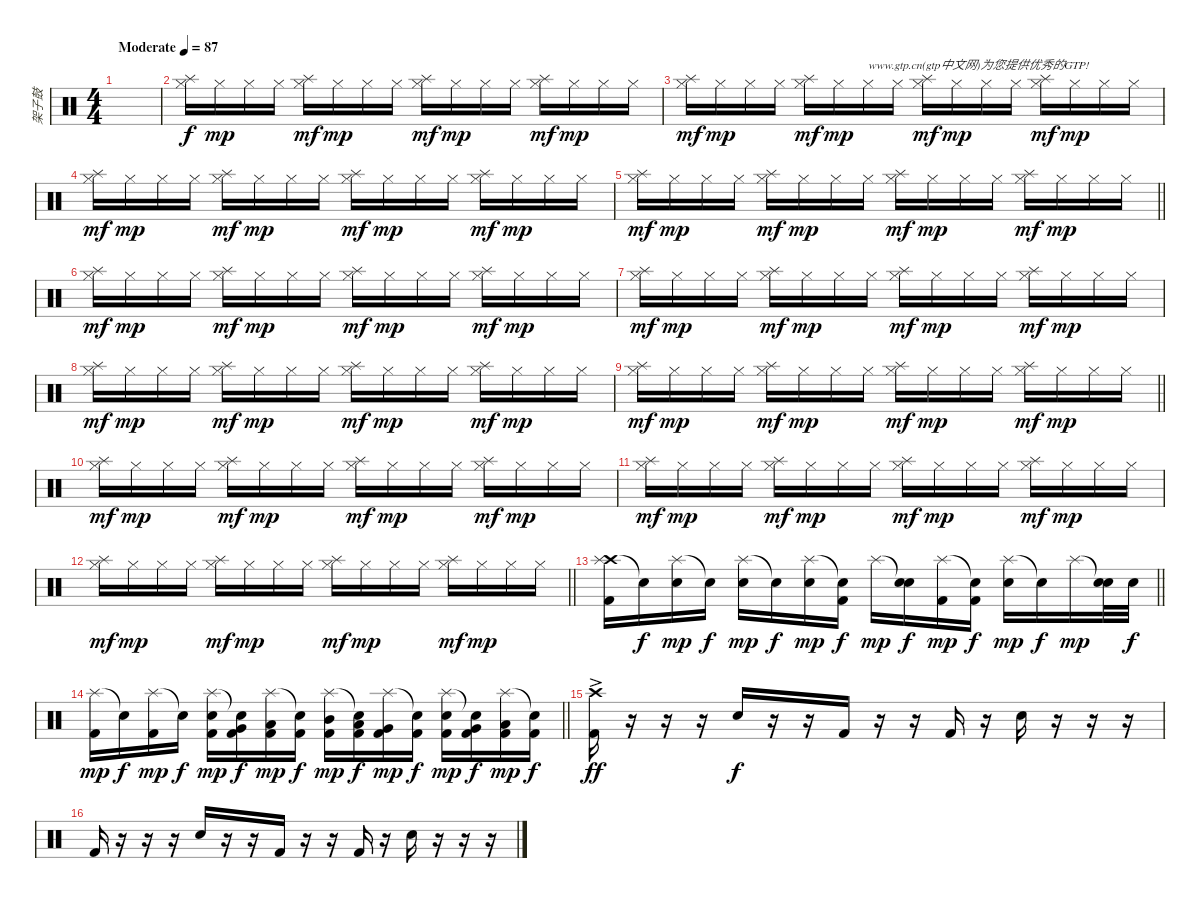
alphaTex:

\track ("架子鼓" "架子鼓") {instrument percussion}
\staff {score}
\articulation defaults
\ts (4 4)
\tempo (87 "Moderate")
\clef neutral
\ks c
|
("Splash (hit)" "Hi-Hat (closed)").16 "Hi-Hat (closed)".16{dy mp} "Hi-Hat (closed)".16 "Hi-Hat (closed)".16 ("Splash (hit)" "Hi-Hat (closed)").16{dy mf} "Hi-Hat (closed)".16{dy mp} "Hi-Hat (closed)".16 "Hi-Hat (closed)".16 ("Splash (hit)" "Hi-Hat (closed)").16{dy mf} "Hi-Hat (closed)".16{dy mp} "Hi-Hat (closed)".16 "Hi-Hat (closed)".16 ("Splash (hit)" "Hi-Hat (closed)").16{dy mf} "Hi-Hat (closed)".16{dy mp} "Hi-Hat (closed)".16 "Hi-Hat (closed)".16 |
("Splash (hit)" "Hi-Hat (closed)").16{dy mf} "Hi-Hat (closed)".16{dy mp} "Hi-Hat (closed)".16 "Hi-Hat (closed)".16 ("Splash (hit)" "Hi-Hat (closed)").16{dy mf} "Hi-Hat (closed)".16{dy mp} "Hi-Hat (closed)".16{txt "www.gtp.cn(gtp中文网)为您提供优秀的GTP!"} "Hi-Hat (closed)".16 ("Splash (hit)" "Hi-Hat (closed)").16{dy mf} "Hi-Hat (closed)".16{dy mp} "Hi-Hat (closed)".16 "Hi-Hat (closed)".16 ("Splash (hit)" "Hi-Hat (closed)").16{dy mf} "Hi-Hat (closed)".16{dy mp} "Hi-Hat (closed)".16 "Hi-Hat (closed)".16 |
("Splash (hit)" "Hi-Hat (closed)").16{dy mf} "Hi-Hat (closed)".16{dy mp} "Hi-Hat (closed)".16 "Hi-Hat (closed)".16 ("Splash (hit)" "Hi-Hat (closed)").16{dy mf} "Hi-Hat (closed)".16{dy mp} "Hi-Hat (closed)".16 "Hi-Hat (closed)".16 ("Splash (hit)" "Hi-Hat (closed)").16{dy mf} "Hi-Hat (closed)".16{dy mp} "Hi-Hat (closed)".16 "Hi-Hat (closed)".16 ("Splash (hit)" "Hi-Hat (closed)").16{dy mf} "Hi-Hat (closed)".16{dy mp} "Hi-Hat (closed)".16 "Hi-Hat (closed)".16 |
\barLineRight lightlight
("Splash (hit)" "Hi-Hat (closed)").16{dy mf} "Hi-Hat (closed)".16{dy mp} "Hi-Hat (closed)".16 "Hi-Hat (closed)".16 ("Splash (hit)" "Hi-Hat (closed)").16{dy mf} "Hi-Hat (closed)".16{dy mp} "Hi-Hat (closed)".16 "Hi-Hat (closed)".16 ("Splash (hit)" "Hi-Hat (closed)").16{dy mf} "Hi-Hat (closed)".16{dy mp} "Hi-Hat (closed)".16 "Hi-Hat (closed)".16 ("Splash (hit)" "Hi-Hat (closed)").16{dy mf} "Hi-Hat (closed)".16{dy mp} "Hi-Hat (closed)".16 "Hi-Hat (closed)".16 |
\section ("" "")
("Splash (hit)" "Hi-Hat (closed)").16{dy mf} "Hi-Hat (closed)".16{dy mp} "Hi-Hat (closed)".16 "Hi-Hat (closed)".16 ("Splash (hit)" "Hi-Hat (closed)").16{dy mf} "Hi-Hat (closed)".16{dy mp} "Hi-Hat (closed)".16 "Hi-Hat (closed)".16 ("Splash (hit)" "Hi-Hat (closed)").16{dy mf} "Hi-Hat (closed)".16{dy mp} "Hi-Hat (closed)".16 "Hi-Hat (closed)".16 ("Splash (hit)" "Hi-Hat (closed)").16{dy mf} "Hi-Hat (closed)".16{dy mp} "Hi-Hat (closed)".16 "Hi-Hat (closed)".16 |
("Splash (hit)" "Hi-Hat (closed)").16{dy mf} "Hi-Hat (closed)".16{dy mp} "Hi-Hat (closed)".16 "Hi-Hat (closed)".16 ("Splash (hit)" "Hi-Hat (closed)").16{dy mf} "Hi-Hat (closed)".16{dy mp} "Hi-Hat (closed)".16 "Hi-Hat (closed)".16 ("Splash (hit)" "Hi-Hat (closed)").16{dy mf} "Hi-Hat (closed)".16{dy mp} "Hi-Hat (closed)".16 "Hi-Hat (closed)".16 ("Splash (hit)" "Hi-Hat (closed)").16{dy mf} "Hi-Hat (closed)".16{dy mp} "Hi-Hat (closed)".16 "Hi-Hat (closed)".16 |
("Splash (hit)" "Hi-Hat (closed)").16{dy mf} "Hi-Hat (closed)".16{dy mp} "Hi-Hat (closed)".16 "Hi-Hat (closed)".16 ("Splash (hit)" "Hi-Hat (closed)").16{dy mf} "Hi-Hat (closed)".16{dy mp} "Hi-Hat (closed)".16 "Hi-Hat (closed)".16 ("Splash (hit)" "Hi-Hat (closed)").16{dy mf} "Hi-Hat (closed)".16{dy mp} "Hi-Hat (closed)".16 "Hi-Hat (closed)".16 ("Splash (hit)" "Hi-Hat (closed)").16{dy mf} "Hi-Hat (closed)".16{dy mp} "Hi-Hat (closed)".16 "Hi-Hat (closed)".16 |
\barLineRight lightlight
("Splash (hit)" "Hi-Hat (closed)").16{dy mf} "Hi-Hat (closed)".16{dy mp} "Hi-Hat (closed)".16 "Hi-Hat (closed)".16 ("Splash (hit)" "Hi-Hat (closed)").16{dy mf} "Hi-Hat (closed)".16{dy mp} "Hi-Hat (closed)".16 "Hi-Hat (closed)".16 ("Splash (hit)" "Hi-Hat (closed)").16{dy mf} "Hi-Hat (closed)".16{dy mp} "Hi-Hat (closed)".16 "Hi-Hat (closed)".16 ("Splash (hit)" "Hi-Hat (closed)").16{dy mf} "Hi-Hat (closed)".16{dy mp} "Hi-Hat (closed)".16 "Hi-Hat (closed)".16 |
("Splash (hit)" "Hi-Hat (closed)").16{dy mf} "Hi-Hat (closed)".16{dy mp} "Hi-Hat (closed)".16 "Hi-Hat (closed)".16 ("Splash (hit)" "Hi-Hat (closed)").16{dy mf} "Hi-Hat (closed)".16{dy mp} "Hi-Hat (closed)".16 "Hi-Hat (closed)".16 ("Splash (hit)" "Hi-Hat (closed)").16{dy mf} "Hi-Hat (closed)".16{dy mp} "Hi-Hat (closed)".16 "Hi-Hat (closed)".16 ("Splash (hit)" "Hi-Hat (closed)").16{dy mf} "Hi-Hat (closed)".16{dy mp} "Hi-Hat (closed)".16 "Hi-Hat (closed)".16 |
("Splash (hit)" "Hi-Hat (closed)").16{dy mf} "Hi-Hat (closed)".16{dy mp} "Hi-Hat (closed)".16 "Hi-Hat (closed)".16 ("Splash (hit)" "Hi-Hat (closed)").16{dy mf} "Hi-Hat (closed)".16{dy mp} "Hi-Hat (closed)".16 "Hi-Hat (closed)".16 ("Splash (hit)" "Hi-Hat (closed)").16{dy mf} "Hi-Hat (closed)".16{dy mp} "Hi-Hat (closed)".16 "Hi-Hat (closed)".16 ("Splash (hit)" "Hi-Hat (closed)").16{dy mf} "Hi-Hat (closed)".16{dy mp} "Hi-Hat (closed)".16 "Hi-Hat (closed)".16 |
\barLineRight lightlight
("Splash (hit)" "Hi-Hat (closed)").16{dy mf} "Hi-Hat (closed)".16{dy mp} "Hi-Hat (closed)".16 "Hi-Hat (closed)".16 ("Splash (hit)" "Hi-Hat (closed)").16{dy mf} "Hi-Hat (closed)".16{dy mp} "Hi-Hat (closed)".16 "Hi-Hat (closed)".16 ("Splash (hit)" "Hi-Hat (closed)").16{dy mf} "Hi-Hat (closed)".16{dy mp} "Hi-Hat (closed)".16 "Hi-Hat (closed)".16 ("Splash (hit)" "Hi-Hat (closed)").16{dy mf} "Hi-Hat (closed)".16{dy mp} "Hi-Hat (closed)".16 "Hi-Hat (closed)".16 |
\section ("" "")
\barLineRight lightlight
("Crash high (hit)" "Splash (hit)" "Kick (hit) 2").16 "Snare (hit)"{t}.16{dy f} ("Splash (hit)" "Snare (hit) 2").16{dy mp} "Snare (hit)"{t}.16{dy f} ("Splash (hit)" "Snare (hit) 2").16{dy mp} "Snare (hit)"{t}.16{dy f} ("Splash (hit)" "Snare (hit) 2").16{dy mp} ("Snare (hit)"{t} "Kick (hit) 2").16{dy f} "Splash (hit)".16{dy mp} ("Snare (hit)"{t} "Snare (hit) 2").16{dy f} ("Splash (hit)" "Kick (hit) 2").16{dy mp} ("Snare (hit)"{t} "Kick (hit) 2").16{dy f} ("Splash (hit)" "Snare (hit) 2").16{dy mp} "Snare (hit)"{t}.16{dy f} "Splash (hit)".16{dy mp} ("Snare (hit)"{t} "Electric Snare (hit)").32 "Electric Snare (hit)".32{dy f} |
\barLineRight lightlight
("Splash (hit)" "Kick (hit) 2").16{dy mp} "Snare (hit)"{t}.16{dy f} ("Splash (hit)" "Kick (hit) 2").16{dy mp} "Snare (hit)"{t}.16{dy f} ("Splash (hit)" "Snare (hit) 2" "Kick (hit) 2").16{dy mp} ("Snare (hit)"{t} "Very Low Tom (hit)" "Kick (hit) 2").16{dy f} ("Splash (hit)" "Low Floor Tom (hit)" "Kick (hit) 2").16{dy mp} ("Snare (hit)"{t} "Kick (hit) 2").16{dy f} ("Splash (hit)" "Mid Tom (hit)" "Kick (hit) 2").16{dy mp} ("Snare (hit)"{t} "Low Tom (hit)" "Kick (hit) 2").16{dy f} ("Splash (hit)" "Very Low Tom (hit)" "Kick (hit) 2").16{dy mp} ("Snare (hit)"{t} "Kick (hit) 2").16{dy f} ("Splash (hit)" "Snare (hit) 2" "Kick (hit) 2").16{dy mp} ("Snare (hit)"{t} "Very Low Tom (hit)" "Kick (hit) 2").16{dy f} ("Splash (hit)" "Low Floor Tom (hit)" "Kick (hit) 2").16{dy mp} ("Snare (hit)"{t} "Kick (hit) 2").16{dy f} |
\section ("" "")
("Crash high (hit)"{ac} "Kick (hit) 2"{ac}).16{dy ff} r.16 r.16 r.16 "Electric Snare (hit)".16{dy f} r.16 r.16 "Kick (hit) 2".16 r.16 r.16 "Kick (hit) 2".16 r.16 "Electric Snare (hit)".16 r.16 r.16 r.16 |
"Kick (hit) 2".16 r.16 r.16 r.16 "Electric Snare (hit)".16 r.16 r.16 "Kick (hit) 2".16 r.16 r.16 "Kick (hit) 2".16 r.16 "Electric Snare (hit)".16 r.16 r.16 r.16
